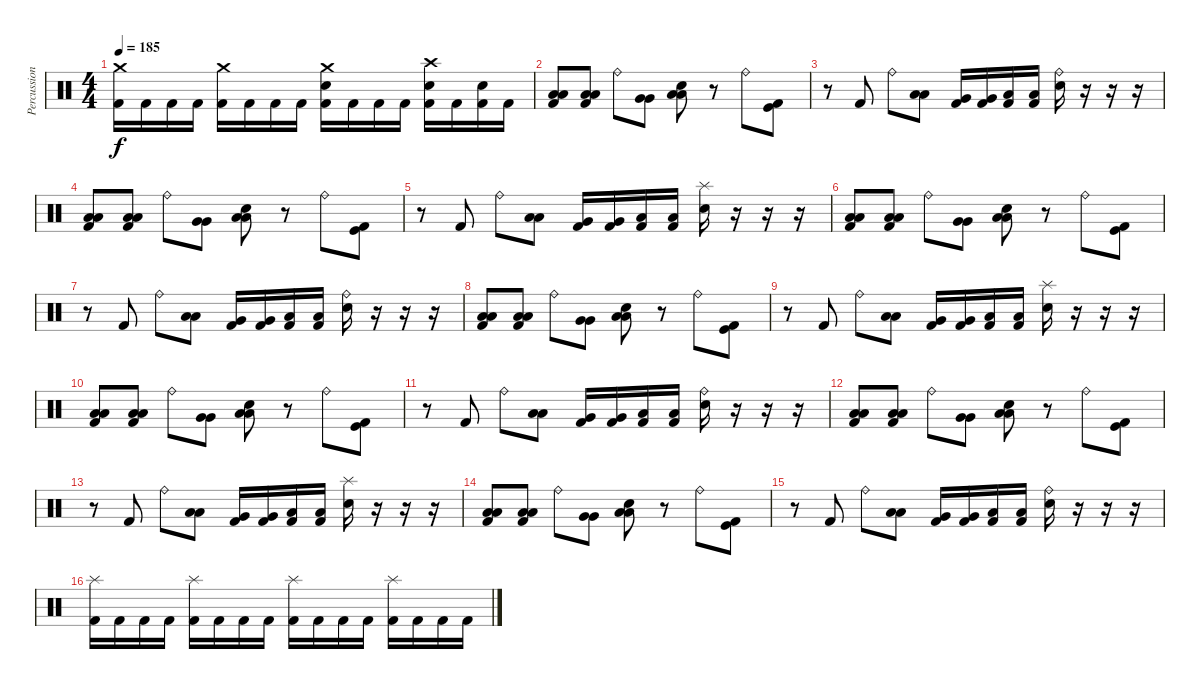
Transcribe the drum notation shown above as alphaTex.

\track ("Percussion" "Percussion") {instrument percussion}
\staff {score}
\articulation defaults
\ts (4 4)
\tempo 185
\clef neutral
\ks c
("Crash medium (hit)" "Kick (hit) 2").16{dy f} "Kick (hit) 2".16 "Kick (hit) 2".16 "Kick (hit) 2".16 ("Crash medium (hit)" "Kick (hit) 2").16 "Kick (hit) 2".16 "Kick (hit) 2".16 "Kick (hit) 2".16 ("Crash medium (hit)" "Electric Snare (hit)" "Kick (hit) 2").16 "Kick (hit) 2".16 "Kick (hit) 2".16 "Kick (hit) 2".16 ("Crash high (hit)" "Electric Snare (hit)" "Kick (hit) 2").16 "Kick (hit) 2".16 ("Electric Snare (hit)" "Kick (hit) 2").16 "Kick (hit) 2".16 |
("Low Tom (hit)" "Low Tom (hit)" "Kick (hit) 2").8 ("Low Tom (hit)" "Low Tom (hit)" "Kick (hit) 2").8 "Ride (bell)".8 ("Very Low Tom (hit)" "Very Low Tom (hit)").8 ("Electric Snare (hit)" "Low Tom (hit)" "Low Tom (hit)").8 r.8 "Ride (bell)".8 ("Kick (hit)" "Kick (hit) 2").8 |
r.8 "Kick (hit) 2".8 "Ride (bell)".8 ("Low Tom (hit)" "Low Tom (hit)").8 ("Very Low Tom (hit)" "Kick (hit) 2").16 ("Very Low Tom (hit)" "Kick (hit) 2").16 ("Low Floor Tom (hit)" "Kick (hit) 2").16 ("Low Floor Tom (hit)" "Kick (hit) 2").16 ("Ride (bell)" "Electric Snare (hit)").16 r.16 r.16 r.16 |
("Low Tom (hit)" "Low Tom (hit)" "Kick (hit) 2").8 ("Low Tom (hit)" "Low Tom (hit)" "Kick (hit) 2").8 "Ride (bell)".8 ("Very Low Tom (hit)" "Very Low Tom (hit)").8 ("Electric Snare (hit)" "Low Tom (hit)" "Low Tom (hit)").8 r.8 "Ride (bell)".8 ("Kick (hit)" "Kick (hit) 2").8 |
r.8 "Kick (hit) 2".8 "Ride (bell)".8 ("Low Tom (hit)" "Low Tom (hit)").8 ("Very Low Tom (hit)" "Kick (hit) 2").16 ("Very Low Tom (hit)" "Kick (hit) 2").16 ("Low Floor Tom (hit)" "Kick (hit) 2").16 ("Low Floor Tom (hit)" "Kick (hit) 2").16 ("Splash (hit)" "Electric Snare (hit)").16 r.16 r.16 r.16 |
("Low Tom (hit)" "Low Tom (hit)" "Kick (hit) 2").8 ("Low Tom (hit)" "Low Tom (hit)" "Kick (hit) 2").8 "Ride (bell)".8 ("Very Low Tom (hit)" "Very Low Tom (hit)").8 ("Electric Snare (hit)" "Low Tom (hit)" "Low Tom (hit)").8 r.8 "Ride (bell)".8 ("Kick (hit)" "Kick (hit) 2").8 |
r.8 "Kick (hit) 2".8 "Ride (bell)".8 ("Low Tom (hit)" "Low Tom (hit)").8 ("Very Low Tom (hit)" "Kick (hit) 2").16 ("Very Low Tom (hit)" "Kick (hit) 2").16 ("Low Floor Tom (hit)" "Kick (hit) 2").16 ("Low Floor Tom (hit)" "Kick (hit) 2").16 ("Ride (bell)" "Electric Snare (hit)").16 r.16 r.16 r.16 |
("Low Tom (hit)" "Low Tom (hit)" "Kick (hit) 2").8 ("Low Tom (hit)" "Low Tom (hit)" "Kick (hit) 2").8 "Ride (bell)".8 ("Very Low Tom (hit)" "Very Low Tom (hit)").8 ("Electric Snare (hit)" "Low Tom (hit)" "Low Tom (hit)").8 r.8 "Ride (bell)".8 ("Kick (hit)" "Kick (hit) 2").8 |
r.8 "Kick (hit) 2".8 "Ride (bell)".8 ("Low Tom (hit)" "Low Tom (hit)").8 ("Very Low Tom (hit)" "Kick (hit) 2").16 ("Very Low Tom (hit)" "Kick (hit) 2").16 ("Low Floor Tom (hit)" "Kick (hit) 2").16 ("Low Floor Tom (hit)" "Kick (hit) 2").16 ("Splash (hit)" "Electric Snare (hit)").16 r.16 r.16 r.16 |
("Low Tom (hit)" "Low Tom (hit)" "Kick (hit) 2").8 ("Low Tom (hit)" "Low Tom (hit)" "Kick (hit) 2").8 "Ride (bell)".8 ("Very Low Tom (hit)" "Very Low Tom (hit)").8 ("Electric Snare (hit)" "Low Tom (hit)" "Low Tom (hit)").8 r.8 "Ride (bell)".8 ("Kick (hit)" "Kick (hit) 2").8 |
r.8 "Kick (hit) 2".8 "Ride (bell)".8 ("Low Tom (hit)" "Low Tom (hit)").8 ("Very Low Tom (hit)" "Kick (hit) 2").16 ("Very Low Tom (hit)" "Kick (hit) 2").16 ("Low Floor Tom (hit)" "Kick (hit) 2").16 ("Low Floor Tom (hit)" "Kick (hit) 2").16 ("Ride (bell)" "Electric Snare (hit)").16 r.16 r.16 r.16 |
("Low Tom (hit)" "Low Tom (hit)" "Kick (hit) 2").8 ("Low Tom (hit)" "Low Tom (hit)" "Kick (hit) 2").8 "Ride (bell)".8 ("Very Low Tom (hit)" "Very Low Tom (hit)").8 ("Electric Snare (hit)" "Low Tom (hit)" "Low Tom (hit)").8 r.8 "Ride (bell)".8 ("Kick (hit)" "Kick (hit) 2").8 |
r.8 "Kick (hit) 2".8 "Ride (bell)".8 ("Low Tom (hit)" "Low Tom (hit)").8 ("Very Low Tom (hit)" "Kick (hit) 2").16 ("Very Low Tom (hit)" "Kick (hit) 2").16 ("Low Floor Tom (hit)" "Kick (hit) 2").16 ("Low Floor Tom (hit)" "Kick (hit) 2").16 ("Splash (hit)" "Electric Snare (hit)").16 r.16 r.16 r.16 |
("Low Tom (hit)" "Low Tom (hit)" "Kick (hit) 2").8 ("Low Tom (hit)" "Low Tom (hit)" "Kick (hit) 2").8 "Ride (bell)".8 ("Very Low Tom (hit)" "Very Low Tom (hit)").8 ("Electric Snare (hit)" "Low Tom (hit)" "Low Tom (hit)").8 r.8 "Ride (bell)".8 ("Kick (hit)" "Kick (hit) 2").8 |
r.8 "Kick (hit) 2".8 "Ride (bell)".8 ("Low Tom (hit)" "Low Tom (hit)").8 ("Very Low Tom (hit)" "Kick (hit) 2").16 ("Very Low Tom (hit)" "Kick (hit) 2").16 ("Low Floor Tom (hit)" "Kick (hit) 2").16 ("Low Floor Tom (hit)" "Kick (hit) 2").16 ("Ride (bell)" "Electric Snare (hit)").16 r.16 r.16 r.16 |
("Splash (hit)" "Kick (hit) 2").16 "Kick (hit) 2".16 "Kick (hit) 2".16 "Kick (hit) 2".16 ("Splash (hit)" "Kick (hit) 2").16 "Kick (hit) 2".16 "Kick (hit) 2".16 "Kick (hit) 2".16 ("Splash (hit)" "Kick (hit) 2").16 "Kick (hit) 2".16 "Kick (hit) 2".16 "Kick (hit) 2".16 ("Splash (hit)" "Kick (hit) 2").16 "Kick (hit) 2".16 "Kick (hit) 2".16 "Kick (hit) 2".16
